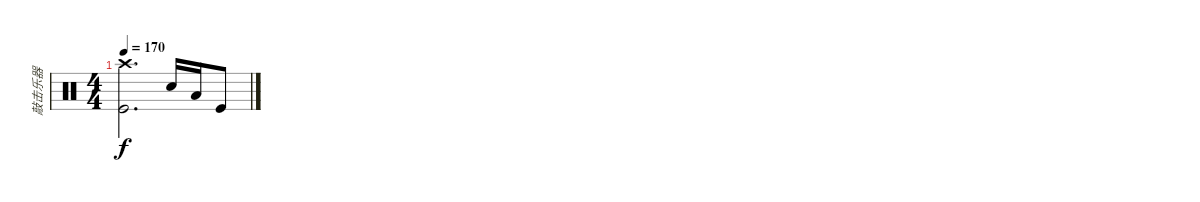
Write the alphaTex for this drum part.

\track ("敲击乐器" "敲击乐器") {instrument percussion}
\staff {score}
\articulation defaults
\ts (4 4)
\tempo 170
\clef neutral
\ks c
("Crash high (hit)" "Kick (hit)").2{d dy f} "Snare (hit) 2".16 "Low Floor Tom (hit)".16 "Kick (hit)".8
